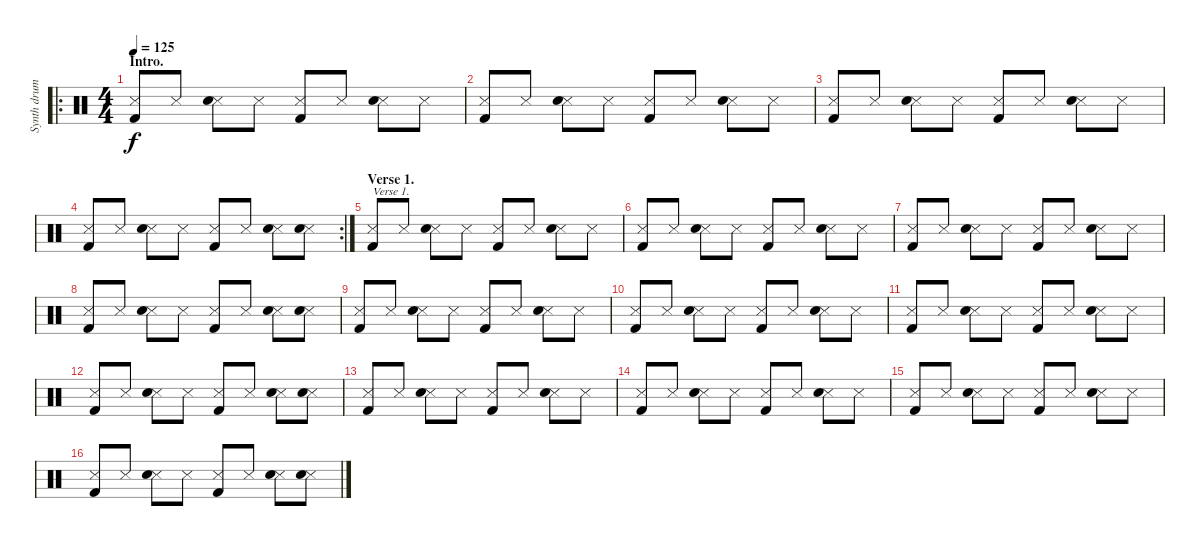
\track ("Synth drums" "Synth drum") {instrument percussion}
\staff {score}
\articulation defaults
\ro
\ts (4 4)
\section ("" "Intro.")
\tempo 125
\clef neutral
\ks c
("Snare (side stick) 3" "Kick (hit) 2").8{dy f} "Snare (side stick) 3".8 ("Snare (side stick) 3" "Electric Snare (hit)").8 "Snare (side stick) 3".8 ("Snare (side stick) 3" "Kick (hit) 2").8 "Snare (side stick) 3".8 ("Snare (side stick) 3" "Electric Snare (hit)").8 "Snare (side stick) 3".8 |
("Snare (side stick) 3" "Kick (hit) 2").8 "Snare (side stick) 3".8 ("Snare (side stick) 3" "Electric Snare (hit)").8 "Snare (side stick) 3".8 ("Snare (side stick) 3" "Kick (hit) 2").8 "Snare (side stick) 3".8 ("Snare (side stick) 3" "Electric Snare (hit)").8 "Snare (side stick) 3".8 |
("Snare (side stick) 3" "Kick (hit) 2").8 "Snare (side stick) 3".8 ("Snare (side stick) 3" "Electric Snare (hit)").8 "Snare (side stick) 3".8 ("Snare (side stick) 3" "Kick (hit) 2").8 "Snare (side stick) 3".8 ("Snare (side stick) 3" "Electric Snare (hit)").8 "Snare (side stick) 3".8 |
\rc 2
("Snare (side stick) 3" "Kick (hit) 2").8 "Snare (side stick) 3".8 ("Snare (side stick) 3" "Electric Snare (hit)").8 "Snare (side stick) 3".8 ("Snare (side stick) 3" "Kick (hit) 2").8 "Snare (side stick) 3".8 ("Snare (side stick) 3" "Electric Snare (hit)").8 ("Snare (side stick) 3" "Electric Snare (hit)").8 |
\section ("" "Verse 1.")
("Snare (side stick) 3" "Kick (hit) 2").8{txt "Verse 1."} "Snare (side stick) 3".8 ("Snare (side stick) 3" "Electric Snare (hit)").8 "Snare (side stick) 3".8 ("Snare (side stick) 3" "Kick (hit) 2").8 "Snare (side stick) 3".8 ("Snare (side stick) 3" "Electric Snare (hit)").8 "Snare (side stick) 3".8 |
("Snare (side stick) 3" "Kick (hit) 2").8 "Snare (side stick) 3".8 ("Snare (side stick) 3" "Electric Snare (hit)").8 "Snare (side stick) 3".8 ("Snare (side stick) 3" "Kick (hit) 2").8 "Snare (side stick) 3".8 ("Snare (side stick) 3" "Electric Snare (hit)").8 "Snare (side stick) 3".8 |
("Snare (side stick) 3" "Kick (hit) 2").8 "Snare (side stick) 3".8 ("Snare (side stick) 3" "Electric Snare (hit)").8 "Snare (side stick) 3".8 ("Snare (side stick) 3" "Kick (hit) 2").8 "Snare (side stick) 3".8 ("Snare (side stick) 3" "Electric Snare (hit)").8 "Snare (side stick) 3".8 |
("Snare (side stick) 3" "Kick (hit) 2").8 "Snare (side stick) 3".8 ("Snare (side stick) 3" "Electric Snare (hit)").8 "Snare (side stick) 3".8 ("Snare (side stick) 3" "Kick (hit) 2").8 "Snare (side stick) 3".8 ("Snare (side stick) 3" "Electric Snare (hit)").8 ("Snare (side stick) 3" "Electric Snare (hit)").8 |
("Snare (side stick) 3" "Kick (hit) 2").8 "Snare (side stick) 3".8 ("Snare (side stick) 3" "Electric Snare (hit)").8 "Snare (side stick) 3".8 ("Snare (side stick) 3" "Kick (hit) 2").8 "Snare (side stick) 3".8 ("Snare (side stick) 3" "Electric Snare (hit)").8 "Snare (side stick) 3".8 |
("Snare (side stick) 3" "Kick (hit) 2").8 "Snare (side stick) 3".8 ("Snare (side stick) 3" "Electric Snare (hit)").8 "Snare (side stick) 3".8 ("Snare (side stick) 3" "Kick (hit) 2").8 "Snare (side stick) 3".8 ("Snare (side stick) 3" "Electric Snare (hit)").8 "Snare (side stick) 3".8 |
("Snare (side stick) 3" "Kick (hit) 2").8 "Snare (side stick) 3".8 ("Snare (side stick) 3" "Electric Snare (hit)").8 "Snare (side stick) 3".8 ("Snare (side stick) 3" "Kick (hit) 2").8 "Snare (side stick) 3".8 ("Snare (side stick) 3" "Electric Snare (hit)").8 "Snare (side stick) 3".8 |
("Snare (side stick) 3" "Kick (hit) 2").8 "Snare (side stick) 3".8 ("Snare (side stick) 3" "Electric Snare (hit)").8 "Snare (side stick) 3".8 ("Snare (side stick) 3" "Kick (hit) 2").8 "Snare (side stick) 3".8 ("Snare (side stick) 3" "Electric Snare (hit)").8 ("Snare (side stick) 3" "Electric Snare (hit)").8 |
("Snare (side stick) 3" "Kick (hit) 2").8 "Snare (side stick) 3".8 ("Snare (side stick) 3" "Electric Snare (hit)").8 "Snare (side stick) 3".8 ("Snare (side stick) 3" "Kick (hit) 2").8 "Snare (side stick) 3".8 ("Snare (side stick) 3" "Electric Snare (hit)").8 "Snare (side stick) 3".8 |
("Snare (side stick) 3" "Kick (hit) 2").8 "Snare (side stick) 3".8 ("Snare (side stick) 3" "Electric Snare (hit)").8 "Snare (side stick) 3".8 ("Snare (side stick) 3" "Kick (hit) 2").8 "Snare (side stick) 3".8 ("Snare (side stick) 3" "Electric Snare (hit)").8 "Snare (side stick) 3".8 |
("Snare (side stick) 3" "Kick (hit) 2").8 "Snare (side stick) 3".8 ("Snare (side stick) 3" "Electric Snare (hit)").8 "Snare (side stick) 3".8 ("Snare (side stick) 3" "Kick (hit) 2").8 "Snare (side stick) 3".8 ("Snare (side stick) 3" "Electric Snare (hit)").8 "Snare (side stick) 3".8 |
("Snare (side stick) 3" "Kick (hit) 2").8 "Snare (side stick) 3".8 ("Snare (side stick) 3" "Electric Snare (hit)").8 "Snare (side stick) 3".8 ("Snare (side stick) 3" "Kick (hit) 2").8 "Snare (side stick) 3".8 ("Snare (side stick) 3" "Electric Snare (hit)").8 ("Snare (side stick) 3" "Electric Snare (hit)").8
